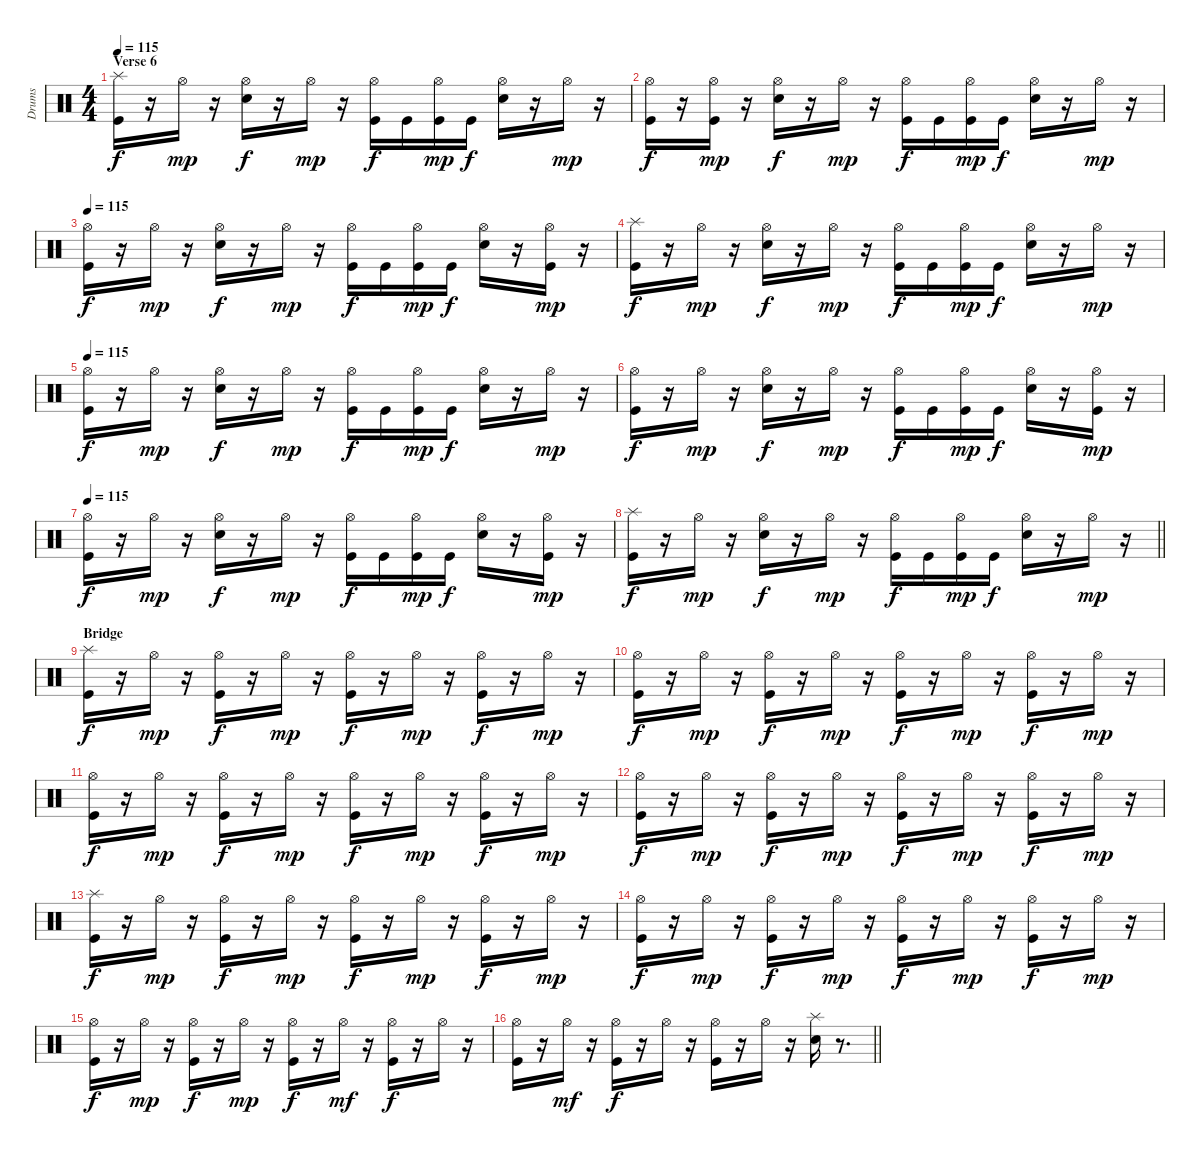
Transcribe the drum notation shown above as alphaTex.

\track ("Drums" "Drums") {instrument percussion}
\staff {score}
\articulation defaults
\ts (4 4)
\section ("" "Verse 6")
\tempo 115
\clef neutral
\ks c
("Splash (hit)" "Kick (hit)").16{dy f} r.16 "Hi-Hat (open)".16{dy mp} r.16 ("Hi-Hat (open)" "Electric Snare (hit)").16{dy f} r.16 "Hi-Hat (open)".16{dy mp} r.16 ("Hi-Hat (open)" "Kick (hit)").16{dy f} "Kick (hit)".16 ("Kick (hit)" "Hi-Hat (open)").16{dy mp} "Kick (hit)".16{dy f} ("Hi-Hat (open)" "Electric Snare (hit)").16 r.16 "Hi-Hat (open)".16{dy mp} r.16 |
("Hi-Hat (open)" "Kick (hit)").16{dy f} r.16 ("Kick (hit)" "Hi-Hat (open)").16{dy mp} r.16 ("Hi-Hat (open)" "Electric Snare (hit)").16{dy f} r.16 "Hi-Hat (open)".16{dy mp} r.16 ("Hi-Hat (open)" "Kick (hit)").16{dy f} "Kick (hit)".16 ("Kick (hit)" "Hi-Hat (open)").16{dy mp} "Kick (hit)".16{dy f} ("Hi-Hat (open)" "Electric Snare (hit)").16 r.16 "Hi-Hat (open)".16{dy mp} r.16 |
\tempo 115
("Hi-Hat (open)" "Kick (hit)").16{dy f} r.16 "Hi-Hat (open)".16{dy mp} r.16 ("Hi-Hat (open)" "Electric Snare (hit)").16{dy f} r.16 "Hi-Hat (open)".16{dy mp} r.16 ("Hi-Hat (open)" "Kick (hit)").16{dy f} "Kick (hit)".16 ("Kick (hit)" "Hi-Hat (open)").16{dy mp} "Kick (hit)".16{dy f} ("Hi-Hat (open)" "Electric Snare (hit)").16 r.16 ("Kick (hit)" "Hi-Hat (open)").16{dy mp} r.16 |
("Splash (hit)" "Kick (hit)").16{dy f} r.16 "Hi-Hat (open)".16{dy mp} r.16 ("Hi-Hat (open)" "Electric Snare (hit)").16{dy f} r.16 "Hi-Hat (open)".16{dy mp} r.16 ("Hi-Hat (open)" "Kick (hit)").16{dy f} "Kick (hit)".16 ("Kick (hit)" "Hi-Hat (open)").16{dy mp} "Kick (hit)".16{dy f} ("Hi-Hat (open)" "Electric Snare (hit)").16 r.16 "Hi-Hat (open)".16{dy mp} r.16 |
\tempo 115
("Hi-Hat (open)" "Kick (hit)").16{dy f} r.16 "Hi-Hat (open)".16{dy mp} r.16 ("Hi-Hat (open)" "Electric Snare (hit)").16{dy f} r.16 "Hi-Hat (open)".16{dy mp} r.16 ("Hi-Hat (open)" "Kick (hit)").16{dy f} "Kick (hit)".16 ("Kick (hit)" "Hi-Hat (open)").16{dy mp} "Kick (hit)".16{dy f} ("Hi-Hat (open)" "Electric Snare (hit)").16 r.16 "Hi-Hat (open)".16{dy mp} r.16 |
("Hi-Hat (open)" "Kick (hit)").16{dy f} r.16 "Hi-Hat (open)".16{dy mp} r.16 ("Hi-Hat (open)" "Electric Snare (hit)").16{dy f} r.16 "Hi-Hat (open)".16{dy mp} r.16 ("Hi-Hat (open)" "Kick (hit)").16{dy f} "Kick (hit)".16 ("Kick (hit)" "Hi-Hat (open)").16{dy mp} "Kick (hit)".16{dy f} ("Hi-Hat (open)" "Electric Snare (hit)").16 r.16 ("Kick (hit)" "Hi-Hat (open)").16{dy mp} r.16 |
\tempo 115
("Hi-Hat (open)" "Kick (hit)").16{dy f} r.16 "Hi-Hat (open)".16{dy mp} r.16 ("Hi-Hat (open)" "Electric Snare (hit)").16{dy f} r.16 "Hi-Hat (open)".16{dy mp} r.16 ("Hi-Hat (open)" "Kick (hit)").16{dy f} "Kick (hit)".16 ("Kick (hit)" "Hi-Hat (open)").16{dy mp} "Kick (hit)".16{dy f} ("Hi-Hat (open)" "Electric Snare (hit)").16 r.16 ("Kick (hit)" "Hi-Hat (open)").16{dy mp} r.16 |
\barLineRight lightlight
("Splash (hit)" "Kick (hit)").16{dy f} r.16 "Hi-Hat (open)".16{dy mp} r.16 ("Hi-Hat (open)" "Electric Snare (hit)").16{dy f} r.16 "Hi-Hat (open)".16{dy mp} r.16 ("Hi-Hat (open)" "Kick (hit)").16{dy f} "Kick (hit)".16 ("Kick (hit)" "Hi-Hat (open)").16{dy mp} "Kick (hit)".16{dy f} ("Hi-Hat (open)" "Electric Snare (hit)").16 r.16 "Hi-Hat (open)".16{dy mp} r.16 |
\section ("" "Bridge")
("Kick (hit)" "Splash (hit)").16{dy f} r.16 "Hi-Hat (open)".16{dy mp} r.16 ("Hi-Hat (open)" "Kick (hit)").16{dy f} r.16 "Hi-Hat (open)".16{dy mp} r.16 ("Hi-Hat (open)" "Kick (hit)").16{dy f} r.16 "Hi-Hat (open)".16{dy mp} r.16 ("Hi-Hat (open)" "Kick (hit)").16{dy f} r.16 "Hi-Hat (open)".16{dy mp} r.16 |
("Hi-Hat (open)" "Kick (hit)").16{dy f} r.16 "Hi-Hat (open)".16{dy mp} r.16 ("Hi-Hat (open)" "Kick (hit)").16{dy f} r.16 "Hi-Hat (open)".16{dy mp} r.16 ("Hi-Hat (open)" "Kick (hit)").16{dy f} r.16 "Hi-Hat (open)".16{dy mp} r.16 ("Hi-Hat (open)" "Kick (hit)").16{dy f} r.16 "Hi-Hat (open)".16{dy mp} r.16 |
("Hi-Hat (open)" "Kick (hit)").16{dy f} r.16 "Hi-Hat (open)".16{dy mp} r.16 ("Hi-Hat (open)" "Kick (hit)").16{dy f} r.16 "Hi-Hat (open)".16{dy mp} r.16 ("Hi-Hat (open)" "Kick (hit)").16{dy f} r.16 "Hi-Hat (open)".16{dy mp} r.16 ("Hi-Hat (open)" "Kick (hit)").16{dy f} r.16 "Hi-Hat (open)".16{dy mp} r.16 |
("Hi-Hat (open)" "Kick (hit)").16{dy f} r.16 "Hi-Hat (open)".16{dy mp} r.16 ("Hi-Hat (open)" "Kick (hit)").16{dy f} r.16 "Hi-Hat (open)".16{dy mp} r.16 ("Hi-Hat (open)" "Kick (hit)").16{dy f} r.16 "Hi-Hat (open)".16{dy mp} r.16 ("Hi-Hat (open)" "Kick (hit)").16{dy f} r.16 "Hi-Hat (open)".16{dy mp} r.16 |
("Splash (hit)" "Kick (hit)").16{dy f} r.16 "Hi-Hat (open)".16{dy mp} r.16 ("Hi-Hat (open)" "Kick (hit)").16{dy f} r.16 "Hi-Hat (open)".16{dy mp} r.16 ("Hi-Hat (open)" "Kick (hit)").16{dy f} r.16 "Hi-Hat (open)".16{dy mp} r.16 ("Hi-Hat (open)" "Kick (hit)").16{dy f} r.16 "Hi-Hat (open)".16{dy mp} r.16 |
("Hi-Hat (open)" "Kick (hit)").16{dy f} r.16 "Hi-Hat (open)".16{dy mp} r.16 ("Hi-Hat (open)" "Kick (hit)").16{dy f} r.16 "Hi-Hat (open)".16{dy mp} r.16 ("Hi-Hat (open)" "Kick (hit)").16{dy f} r.16 "Hi-Hat (open)".16{dy mp} r.16 ("Hi-Hat (open)" "Kick (hit)").16{dy f} r.16 "Hi-Hat (open)".16{dy mp} r.16 |
("Hi-Hat (open)" "Kick (hit)").16{dy f} r.16 "Hi-Hat (open)".16{dy mp} r.16 ("Hi-Hat (open)" "Kick (hit)").16{dy f} r.16 "Hi-Hat (open)".16{dy mp} r.16 ("Hi-Hat (open)" "Kick (hit)").16{dy f} r.16 "Hi-Hat (open)".16{dy mf} r.16 ("Hi-Hat (open)" "Kick (hit)").16{dy f} r.16 "Hi-Hat (open)".16 r.16 |
\barLineRight lightlight
("Hi-Hat (open)" "Kick (hit)").16 r.16 "Hi-Hat (open)".16{dy mf} r.16 ("Hi-Hat (open)" "Kick (hit)").16{dy f} r.16 "Hi-Hat (open)".16 r.16 ("Hi-Hat (open)" "Kick (hit)").16 r.16 "Hi-Hat (open)".16 r.16 ("Splash (hit)" "Electric Snare (hit)").16 r.8{d}
